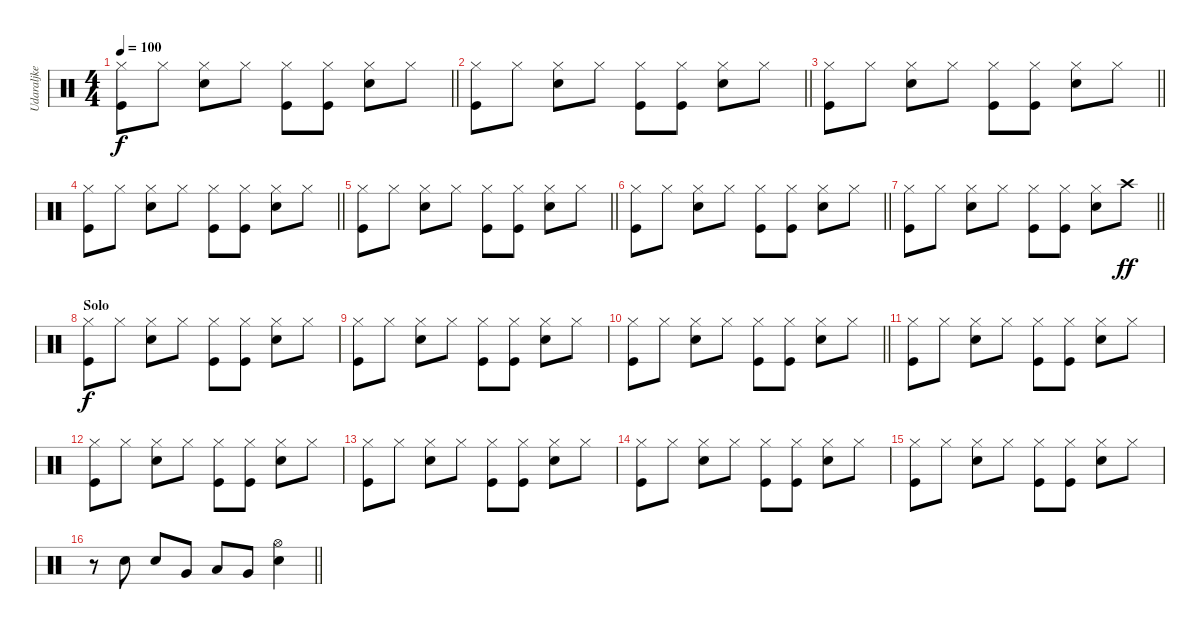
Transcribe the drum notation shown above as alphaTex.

\track ("Udaraljke" "Udaraljke") {instrument percussion}
\staff {score}
\articulation defaults
\ts (4 4)
\tempo 100
\clef neutral
\barLineRight lightlight
\ks c
("Hi-Hat (closed)" "Kick (hit)").8{dy f} "Hi-Hat (closed)".8 ("Hi-Hat (closed)" "Snare (hit) 2").8 "Hi-Hat (closed)".8 ("Hi-Hat (closed)" "Kick (hit)").8 ("Hi-Hat (closed)" "Kick (hit)").8 ("Hi-Hat (closed)" "Snare (hit) 2").8 "Hi-Hat (closed)".8 |
\barLineRight lightlight
("Hi-Hat (closed)" "Kick (hit)").8 "Hi-Hat (closed)".8 ("Hi-Hat (closed)" "Snare (hit) 2").8 "Hi-Hat (closed)".8 ("Hi-Hat (closed)" "Kick (hit)").8 ("Hi-Hat (closed)" "Kick (hit)").8 ("Hi-Hat (closed)" "Snare (hit) 2").8 "Hi-Hat (closed)".8 |
\barLineRight lightlight
("Hi-Hat (closed)" "Kick (hit)").8 "Hi-Hat (closed)".8 ("Hi-Hat (closed)" "Snare (hit) 2").8 "Hi-Hat (closed)".8 ("Hi-Hat (closed)" "Kick (hit)").8 ("Hi-Hat (closed)" "Kick (hit)").8 ("Hi-Hat (closed)" "Snare (hit) 2").8 "Hi-Hat (closed)".8 |
\barLineRight lightlight
("Hi-Hat (closed)" "Kick (hit)").8 "Hi-Hat (closed)".8 ("Hi-Hat (closed)" "Snare (hit) 2").8 "Hi-Hat (closed)".8 ("Hi-Hat (closed)" "Kick (hit)").8 ("Hi-Hat (closed)" "Kick (hit)").8 ("Hi-Hat (closed)" "Snare (hit) 2").8 "Hi-Hat (closed)".8 |
\barLineRight lightlight
("Hi-Hat (closed)" "Kick (hit)").8 "Hi-Hat (closed)".8 ("Hi-Hat (closed)" "Snare (hit) 2").8 "Hi-Hat (closed)".8 ("Hi-Hat (closed)" "Kick (hit)").8 ("Hi-Hat (closed)" "Kick (hit)").8 ("Hi-Hat (closed)" "Snare (hit) 2").8 "Hi-Hat (closed)".8 |
\barLineRight lightlight
("Hi-Hat (closed)" "Kick (hit)").8 "Hi-Hat (closed)".8 ("Hi-Hat (closed)" "Snare (hit) 2").8 "Hi-Hat (closed)".8 ("Hi-Hat (closed)" "Kick (hit)").8 ("Hi-Hat (closed)" "Kick (hit)").8 ("Hi-Hat (closed)" "Snare (hit) 2").8 "Hi-Hat (closed)".8 |
\barLineRight lightlight
("Hi-Hat (closed)" "Kick (hit)").8 "Hi-Hat (closed)".8 ("Hi-Hat (closed)" "Snare (hit) 2").8 "Hi-Hat (closed)".8 ("Hi-Hat (closed)" "Kick (hit)").8 ("Hi-Hat (closed)" "Kick (hit)").8 ("Hi-Hat (closed)" "Snare (hit) 2").8 "Crash high (hit)".8{dy ff} |
\section ("" "Solo")
("Hi-Hat (closed)" "Kick (hit)").8{dy f} "Hi-Hat (closed)".8 ("Hi-Hat (closed)" "Snare (hit) 2").8 "Hi-Hat (closed)".8 ("Hi-Hat (closed)" "Kick (hit)").8 ("Hi-Hat (closed)" "Kick (hit)").8 ("Hi-Hat (closed)" "Snare (hit) 2").8 "Hi-Hat (closed)".8 |
("Hi-Hat (closed)" "Kick (hit)").8 "Hi-Hat (closed)".8 ("Hi-Hat (closed)" "Snare (hit) 2").8 "Hi-Hat (closed)".8 ("Hi-Hat (closed)" "Kick (hit)").8 ("Hi-Hat (closed)" "Kick (hit)").8 ("Hi-Hat (closed)" "Snare (hit) 2").8 "Hi-Hat (closed)".8 |
\barLineRight lightlight
("Hi-Hat (closed)" "Kick (hit)").8 "Hi-Hat (closed)".8 ("Hi-Hat (closed)" "Snare (hit) 2").8 "Hi-Hat (closed)".8 ("Hi-Hat (closed)" "Kick (hit)").8 ("Hi-Hat (closed)" "Kick (hit)").8 ("Hi-Hat (closed)" "Snare (hit) 2").8 "Hi-Hat (closed)".8 |
("Hi-Hat (closed)" "Kick (hit)").8 "Hi-Hat (closed)".8 ("Hi-Hat (closed)" "Snare (hit) 2").8 "Hi-Hat (closed)".8 ("Hi-Hat (closed)" "Kick (hit)").8 ("Hi-Hat (closed)" "Kick (hit)").8 ("Hi-Hat (closed)" "Snare (hit) 2").8 "Hi-Hat (closed)".8 |
("Hi-Hat (closed)" "Kick (hit)").8 "Hi-Hat (closed)".8 ("Hi-Hat (closed)" "Snare (hit) 2").8 "Hi-Hat (closed)".8 ("Hi-Hat (closed)" "Kick (hit)").8 ("Hi-Hat (closed)" "Kick (hit)").8 ("Hi-Hat (closed)" "Snare (hit) 2").8 "Hi-Hat (closed)".8 |
("Hi-Hat (closed)" "Kick (hit)").8 "Hi-Hat (closed)".8 ("Hi-Hat (closed)" "Snare (hit) 2").8 "Hi-Hat (closed)".8 ("Hi-Hat (closed)" "Kick (hit)").8 ("Hi-Hat (closed)" "Kick (hit)").8 ("Hi-Hat (closed)" "Snare (hit) 2").8 "Hi-Hat (closed)".8 |
("Hi-Hat (closed)" "Kick (hit)").8 "Hi-Hat (closed)".8 ("Hi-Hat (closed)" "Snare (hit) 2").8 "Hi-Hat (closed)".8 ("Hi-Hat (closed)" "Kick (hit)").8 ("Hi-Hat (closed)" "Kick (hit)").8 ("Hi-Hat (closed)" "Snare (hit) 2").8 "Hi-Hat (closed)".8 |
("Hi-Hat (closed)" "Kick (hit)").8 "Hi-Hat (closed)".8 ("Hi-Hat (closed)" "Snare (hit) 2").8 "Hi-Hat (closed)".8 ("Hi-Hat (closed)" "Kick (hit)").8 ("Hi-Hat (closed)" "Kick (hit)").8 ("Hi-Hat (closed)" "Snare (hit) 2").8 "Hi-Hat (closed)".8 |
\barLineRight lightlight
r.8 "Electric Snare (hit)".8 "Electric Snare (hit)".8 "Very Low Tom (hit)".8 "Low Tom (hit)".8 "Very Low Tom (hit)".8 ("Hi-Hat (open)" "Electric Snare (hit)").4
